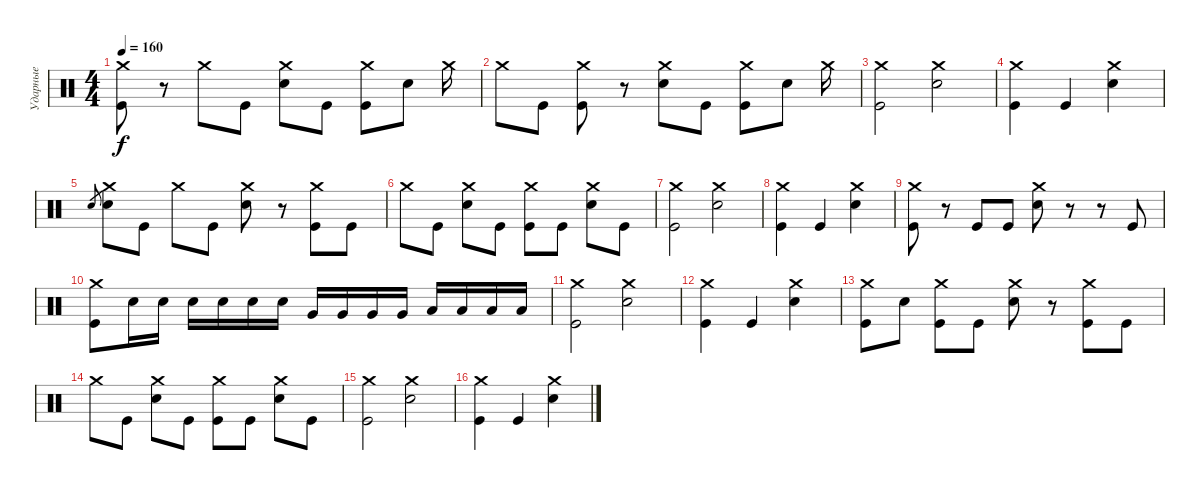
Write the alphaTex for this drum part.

\track ("Ударные" "Ударные") {instrument percussion}
\staff {score}
\articulation defaults
\ts (4 4)
\tempo 160
\clef neutral
\ks c
("Crash medium (hit)" "Kick (hit)").8{dy f} r.8 "Crash medium (hit)".8 "Kick (hit)".8 ("Crash medium (hit)" "Electric Snare (hit)").8 "Kick (hit)".8 ("Crash medium (hit)" "Kick (hit)").8 "Electric Snare (hit)".8 "Crash medium (hit)".16 |
"Crash medium (hit)".8 "Kick (hit)".8 ("Crash medium (hit)" "Kick (hit)").8 r.8 ("Crash medium (hit)" "Electric Snare (hit)").8 "Kick (hit)".8 ("Crash medium (hit)" "Kick (hit)").8 "Electric Snare (hit)".8 "Crash medium (hit)".16 |
("Crash medium (hit)" "Kick (hit)").2 ("Crash medium (hit)" "Electric Snare (hit)").2 |
("Crash medium (hit)" "Kick (hit)").4 "Kick (hit)".4 ("Crash medium (hit)" "Electric Snare (hit)").4 |
"Electric Snare (hit)".8{gr} ("Crash medium (hit)" "Electric Snare (hit)").8 "Kick (hit)".8 "Crash medium (hit)".8 "Kick (hit)".8 ("Crash medium (hit)" "Electric Snare (hit)").8 r.8 ("Crash medium (hit)" "Kick (hit)").8 "Kick (hit)".8 |
"Crash medium (hit)".8 "Kick (hit)".8 ("Crash medium (hit)" "Electric Snare (hit)").8 "Kick (hit)".8 ("Crash medium (hit)" "Kick (hit)").8 "Kick (hit)".8 ("Crash medium (hit)" "Electric Snare (hit)").8 "Kick (hit)".8 |
("Crash medium (hit)" "Kick (hit)").2 ("Crash medium (hit)" "Electric Snare (hit)").2 |
("Crash medium (hit)" "Kick (hit)").4 "Kick (hit)".4 ("Crash medium (hit)" "Electric Snare (hit)").4 |
("Crash medium (hit)" "Kick (hit)").8 r.8 "Kick (hit)".8 "Kick (hit)".8 ("Crash medium (hit)" "Electric Snare (hit)").8 r.8 r.8 "Kick (hit)".8 |
("Crash medium (hit)" "Kick (hit)").8 "Electric Snare (hit)".16 "Electric Snare (hit)".16 "Electric Snare (hit)".16 "Electric Snare (hit)".16 "Electric Snare (hit)".16 "Electric Snare (hit)".16 "Very Low Tom (hit)".16 "Very Low Tom (hit)".16 "Very Low Tom (hit)".16 "Very Low Tom (hit)".16 "Low Floor Tom (hit)".16 "Low Floor Tom (hit)".16 "Low Floor Tom (hit)".16 "Low Floor Tom (hit)".16 |
("Crash medium (hit)" "Kick (hit)").2 ("Crash medium (hit)" "Electric Snare (hit)").2 |
("Crash medium (hit)" "Kick (hit)").4 "Kick (hit)".4 ("Crash medium (hit)" "Electric Snare (hit)").4 |
("Crash medium (hit)" "Kick (hit)").8 "Electric Snare (hit)".8 ("Crash medium (hit)" "Kick (hit)").8 "Kick (hit)".8 ("Crash medium (hit)" "Electric Snare (hit)").8 r.8 ("Crash medium (hit)" "Kick (hit)").8 "Kick (hit)".8 |
"Crash medium (hit)".8 "Kick (hit)".8 ("Crash medium (hit)" "Electric Snare (hit)").8 "Kick (hit)".8 ("Crash medium (hit)" "Kick (hit)").8 "Kick (hit)".8 ("Crash medium (hit)" "Electric Snare (hit)").8 "Kick (hit)".8 |
("Crash medium (hit)" "Kick (hit)").2 ("Crash medium (hit)" "Electric Snare (hit)").2 |
("Crash medium (hit)" "Kick (hit)").4 "Kick (hit)".4 ("Crash medium (hit)" "Electric Snare (hit)").4
